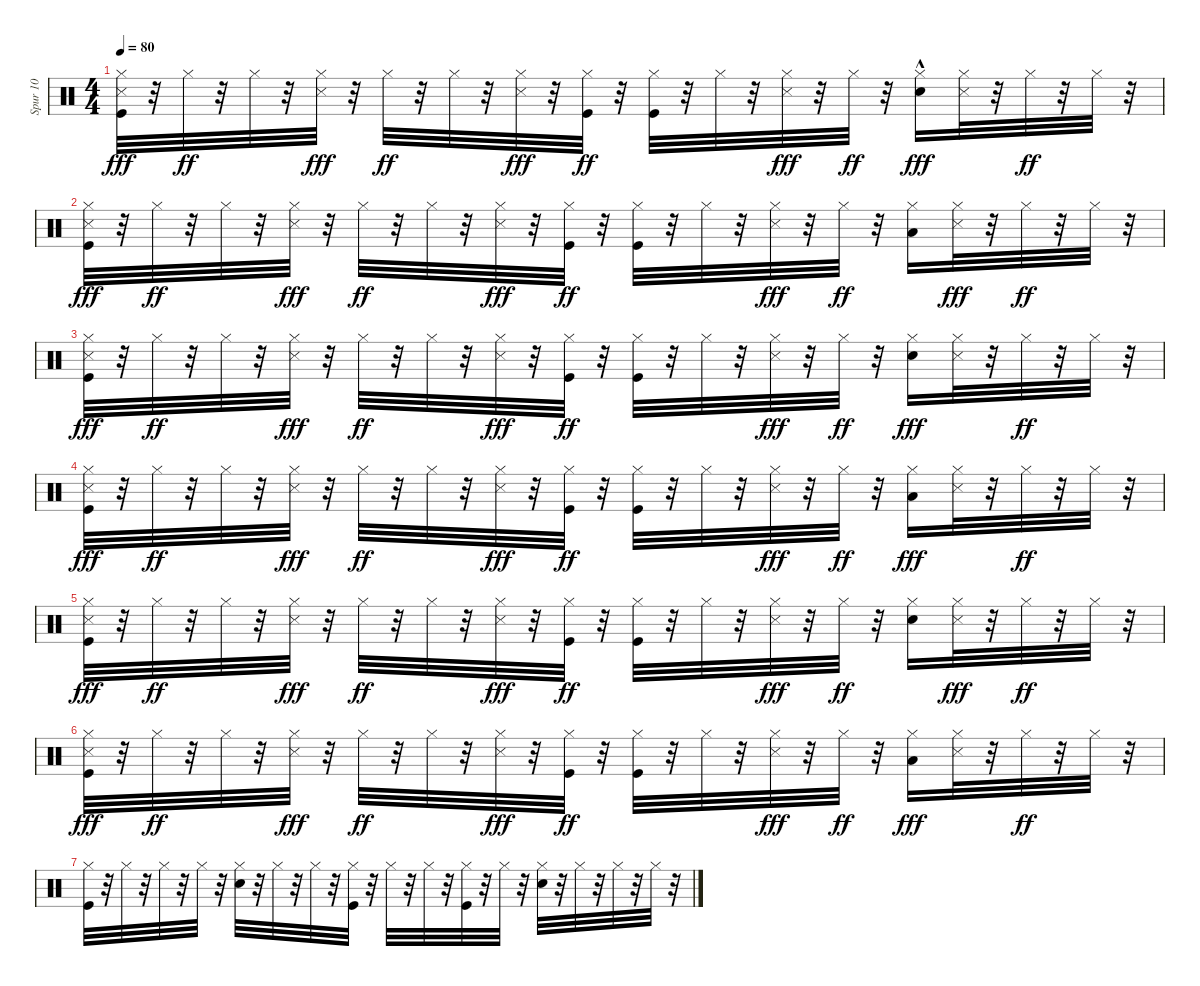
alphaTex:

\track ("Spur 10" "Spur 10") {instrument percussion}
\staff {score}
\articulation defaults
\ts (4 4)
\tempo 80
\clef neutral
\ks c
("Kick (hit)" "Hi-Hat (closed)" "Snare (side stick) 3").32{dy fff} r.32 "Hi-Hat (closed)".32{dy ff} r.32 "Hi-Hat (closed)".32 r.32 ("Hi-Hat (closed)" "Snare (side stick) 3").32{dy fff} r.32 "Hi-Hat (closed)".32{dy ff} r.32 "Hi-Hat (closed)".32 r.32 ("Hi-Hat (closed)" "Snare (side stick) 3").32{dy fff} r.32 ("Kick (hit)" "Hi-Hat (closed)").32{dy ff} r.32 ("Kick (hit)" "Hi-Hat (closed)").32 r.32 "Hi-Hat (closed)".32 r.32 ("Hi-Hat (closed)" "Snare (side stick) 3").32{dy fff} r.32 "Hi-Hat (closed)".32{dy ff} r.32 ("Hi-Hat (closed)" "Snare (hit) 2"{hac}).16{dy fff} ("Hi-Hat (closed)" "Snare (side stick) 3").32 r.32 "Hi-Hat (closed)".32{dy ff} r.32 "Hi-Hat (closed)".32 r.32 |
("Kick (hit)" "Hi-Hat (closed)" "Snare (side stick) 3").32{dy fff} r.32 "Hi-Hat (closed)".32{dy ff} r.32 "Hi-Hat (closed)".32 r.32 ("Hi-Hat (closed)" "Snare (side stick) 3").32{dy fff} r.32 "Hi-Hat (closed)".32{dy ff} r.32 "Hi-Hat (closed)".32 r.32 ("Hi-Hat (closed)" "Snare (side stick) 3").32{dy fff} r.32 ("Kick (hit)" "Hi-Hat (closed)").32{dy ff} r.32 ("Kick (hit)" "Hi-Hat (closed)").32 r.32 "Hi-Hat (closed)".32 r.32 ("Hi-Hat (closed)" "Snare (side stick) 3").32{dy fff} r.32 "Hi-Hat (closed)".32{dy ff} r.32 ("Low Floor Tom (hit)" "Hi-Hat (closed)").16 ("Hi-Hat (closed)" "Snare (side stick) 3").32{dy fff} r.32 "Hi-Hat (closed)".32{dy ff} r.32 "Hi-Hat (closed)".32 r.32 |
("Kick (hit)" "Hi-Hat (closed)" "Snare (side stick) 3").32{dy fff} r.32 "Hi-Hat (closed)".32{dy ff} r.32 "Hi-Hat (closed)".32 r.32 ("Hi-Hat (closed)" "Snare (side stick) 3").32{dy fff} r.32 "Hi-Hat (closed)".32{dy ff} r.32 "Hi-Hat (closed)".32 r.32 ("Hi-Hat (closed)" "Snare (side stick) 3").32{dy fff} r.32 ("Kick (hit)" "Hi-Hat (closed)").32{dy ff} r.32 ("Kick (hit)" "Hi-Hat (closed)").32 r.32 "Hi-Hat (closed)".32 r.32 ("Hi-Hat (closed)" "Snare (side stick) 3").32{dy fff} r.32 "Hi-Hat (closed)".32{dy ff} r.32 ("Hi-Hat (closed)" "Snare (hit) 2").16{dy fff} ("Hi-Hat (closed)" "Snare (side stick) 3").32 r.32 "Hi-Hat (closed)".32{dy ff} r.32 "Hi-Hat (closed)".32 r.32 |
("Kick (hit)" "Hi-Hat (closed)" "Snare (side stick) 3").32{dy fff} r.32 "Hi-Hat (closed)".32{dy ff} r.32 "Hi-Hat (closed)".32 r.32 ("Hi-Hat (closed)" "Snare (side stick) 3").32{dy fff} r.32 "Hi-Hat (closed)".32{dy ff} r.32 "Hi-Hat (closed)".32 r.32 ("Hi-Hat (closed)" "Snare (side stick) 3").32{dy fff} r.32 ("Kick (hit)" "Hi-Hat (closed)").32{dy ff} r.32 ("Kick (hit)" "Hi-Hat (closed)").32 r.32 "Hi-Hat (closed)".32 r.32 ("Hi-Hat (closed)" "Snare (side stick) 3").32{dy fff} r.32 "Hi-Hat (closed)".32{dy ff} r.32 ("Hi-Hat (closed)" "Low Floor Tom (hit)").16{dy fff} ("Hi-Hat (closed)" "Snare (side stick) 3").32 r.32 "Hi-Hat (closed)".32{dy ff} r.32 "Hi-Hat (closed)".32 r.32 |
("Kick (hit)" "Hi-Hat (closed)" "Snare (side stick) 3").32{dy fff} r.32 "Hi-Hat (closed)".32{dy ff} r.32 "Hi-Hat (closed)".32 r.32 ("Hi-Hat (closed)" "Snare (side stick) 3").32{dy fff} r.32 "Hi-Hat (closed)".32{dy ff} r.32 "Hi-Hat (closed)".32 r.32 ("Hi-Hat (closed)" "Snare (side stick) 3").32{dy fff} r.32 ("Kick (hit)" "Hi-Hat (closed)").32{dy ff} r.32 ("Kick (hit)" "Hi-Hat (closed)").32 r.32 "Hi-Hat (closed)".32 r.32 ("Hi-Hat (closed)" "Snare (side stick) 3").32{dy fff} r.32 "Hi-Hat (closed)".32{dy ff} r.32 ("Snare (hit) 2" "Hi-Hat (closed)").16 ("Hi-Hat (closed)" "Snare (side stick) 3").32{dy fff} r.32 "Hi-Hat (closed)".32{dy ff} r.32 "Hi-Hat (closed)".32 r.32 |
("Kick (hit)" "Hi-Hat (closed)" "Snare (side stick) 3").32{dy fff} r.32 "Hi-Hat (closed)".32{dy ff} r.32 "Hi-Hat (closed)".32 r.32 ("Hi-Hat (closed)" "Snare (side stick) 3").32{dy fff} r.32 "Hi-Hat (closed)".32{dy ff} r.32 "Hi-Hat (closed)".32 r.32 ("Hi-Hat (closed)" "Snare (side stick) 3").32{dy fff} r.32 ("Kick (hit)" "Hi-Hat (closed)").32{dy ff} r.32 ("Kick (hit)" "Hi-Hat (closed)").32 r.32 "Hi-Hat (closed)".32 r.32 ("Hi-Hat (closed)" "Snare (side stick) 3").32{dy fff} r.32 "Hi-Hat (closed)".32{dy ff} r.32 ("Hi-Hat (closed)" "Low Floor Tom (hit)").16{dy fff} ("Hi-Hat (closed)" "Snare (side stick) 3").32 r.32 "Hi-Hat (closed)".32{dy ff} r.32 "Hi-Hat (closed)".32 r.32 |
("Kick (hit)" "Hi-Hat (closed)").32 r.32 "Hi-Hat (closed)".32 r.32 "Hi-Hat (closed)".32 r.32 "Hi-Hat (closed)".32 r.32 ("Snare (hit) 2" "Hi-Hat (closed)").32 r.32 "Hi-Hat (closed)".32 r.32 "Hi-Hat (closed)".32 r.32 ("Kick (hit)" "Hi-Hat (closed)").32 r.32 "Hi-Hat (closed)".32 r.32 "Hi-Hat (closed)".32 r.32 ("Kick (hit)" "Hi-Hat (closed)").32 r.32 "Hi-Hat (closed)".32 r.32 ("Snare (hit) 2" "Hi-Hat (closed)").32 r.32 "Hi-Hat (closed)".32 r.32 "Hi-Hat (closed)".32 r.32 "Hi-Hat (closed)".32 r.32
